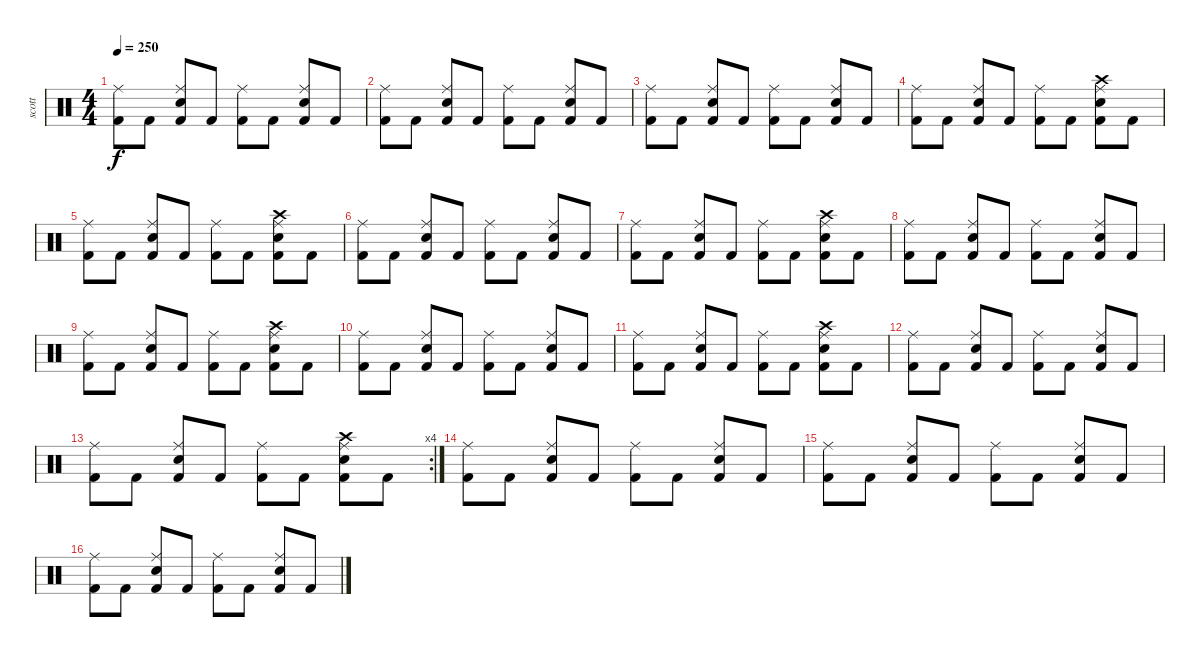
\track ("scott" "scott") {instrument percussion bank 10}
\staff {score}
\articulation defaults
\ts (4 4)
\tempo 250
\clef neutral
\ks c
("Kick (hit) 2" "Ride (middle)").8{dy f} "Kick (hit) 2".8 ("Kick (hit) 2" "Snare (hit) 2" "Ride (middle)").8 "Kick (hit) 2".8 ("Kick (hit) 2" "Ride (middle)").8 "Kick (hit) 2".8 ("Kick (hit) 2" "Snare (hit) 2" "Ride (middle)").8 "Kick (hit) 2".8 |
("Kick (hit) 2" "Ride (middle)").8 "Kick (hit) 2".8 ("Kick (hit) 2" "Snare (hit) 2" "Ride (middle)").8 "Kick (hit) 2".8 ("Kick (hit) 2" "Ride (middle)").8 "Kick (hit) 2".8 ("Kick (hit) 2" "Snare (hit) 2" "Ride (middle)").8 "Kick (hit) 2".8 |
("Kick (hit) 2" "Ride (middle)").8 "Kick (hit) 2".8 ("Kick (hit) 2" "Snare (hit) 2" "Ride (middle)").8 "Kick (hit) 2".8 ("Kick (hit) 2" "Ride (middle)").8 "Kick (hit) 2".8 ("Kick (hit) 2" "Snare (hit) 2" "Ride (middle)").8 "Kick (hit) 2".8 |
("Kick (hit) 2" "Ride (middle)").8 "Kick (hit) 2".8 ("Kick (hit) 2" "Snare (hit) 2" "Ride (middle)").8 "Kick (hit) 2".8 ("Kick (hit) 2" "Ride (middle)").8 "Kick (hit) 2".8 ("Kick (hit) 2" "Snare (hit) 2" "Ride (middle)" "Crash high (hit)").8 "Kick (hit) 2".8 |
("Kick (hit) 2" "Ride (middle)").8 "Kick (hit) 2".8 ("Kick (hit) 2" "Snare (hit) 2" "Ride (middle)").8 "Kick (hit) 2".8 ("Kick (hit) 2" "Ride (middle)").8 "Kick (hit) 2".8 ("Kick (hit) 2" "Snare (hit) 2" "Ride (middle)" "Crash high (hit)").8 "Kick (hit) 2".8 |
("Kick (hit) 2" "Ride (middle)").8 "Kick (hit) 2".8 ("Kick (hit) 2" "Snare (hit) 2" "Ride (middle)").8 "Kick (hit) 2".8 ("Kick (hit) 2" "Ride (middle)").8 "Kick (hit) 2".8 ("Kick (hit) 2" "Snare (hit) 2" "Ride (middle)").8 "Kick (hit) 2".8 |
("Kick (hit) 2" "Ride (middle)").8 "Kick (hit) 2".8 ("Kick (hit) 2" "Snare (hit) 2" "Ride (middle)").8 "Kick (hit) 2".8 ("Kick (hit) 2" "Ride (middle)").8 "Kick (hit) 2".8 ("Kick (hit) 2" "Snare (hit) 2" "Ride (middle)" "Crash high (hit)").8 "Kick (hit) 2".8 |
("Kick (hit) 2" "Ride (middle)").8 "Kick (hit) 2".8 ("Kick (hit) 2" "Snare (hit) 2" "Ride (middle)").8 "Kick (hit) 2".8 ("Kick (hit) 2" "Ride (middle)").8 "Kick (hit) 2".8 ("Kick (hit) 2" "Snare (hit) 2" "Ride (middle)").8 "Kick (hit) 2".8 |
("Kick (hit) 2" "Ride (middle)").8 "Kick (hit) 2".8 ("Kick (hit) 2" "Snare (hit) 2" "Ride (middle)").8 "Kick (hit) 2".8 ("Kick (hit) 2" "Ride (middle)").8 "Kick (hit) 2".8 ("Kick (hit) 2" "Snare (hit) 2" "Ride (middle)" "Crash high (hit)").8 "Kick (hit) 2".8 |
("Kick (hit) 2" "Ride (middle)").8 "Kick (hit) 2".8 ("Kick (hit) 2" "Snare (hit) 2" "Ride (middle)").8 "Kick (hit) 2".8 ("Kick (hit) 2" "Ride (middle)").8 "Kick (hit) 2".8 ("Kick (hit) 2" "Snare (hit) 2" "Ride (middle)").8 "Kick (hit) 2".8 |
("Kick (hit) 2" "Ride (middle)").8 "Kick (hit) 2".8 ("Kick (hit) 2" "Snare (hit) 2" "Ride (middle)").8 "Kick (hit) 2".8 ("Kick (hit) 2" "Ride (middle)").8 "Kick (hit) 2".8 ("Kick (hit) 2" "Snare (hit) 2" "Ride (middle)" "Crash high (hit)").8 "Kick (hit) 2".8 |
("Kick (hit) 2" "Ride (middle)").8 "Kick (hit) 2".8 ("Kick (hit) 2" "Snare (hit) 2" "Ride (middle)").8 "Kick (hit) 2".8 ("Kick (hit) 2" "Ride (middle)").8 "Kick (hit) 2".8 ("Kick (hit) 2" "Snare (hit) 2" "Ride (middle)").8 "Kick (hit) 2".8 |
\rc 4
("Kick (hit) 2" "Ride (middle)").8 "Kick (hit) 2".8 ("Kick (hit) 2" "Snare (hit) 2" "Ride (middle)").8 "Kick (hit) 2".8 ("Kick (hit) 2" "Ride (middle)").8 "Kick (hit) 2".8 ("Kick (hit) 2" "Snare (hit) 2" "Ride (middle)" "Crash high (hit)").8 "Kick (hit) 2".8 |
("Kick (hit) 2" "Ride (middle)").8 "Kick (hit) 2".8 ("Kick (hit) 2" "Snare (hit) 2" "Ride (middle)").8 "Kick (hit) 2".8 ("Kick (hit) 2" "Ride (middle)").8 "Kick (hit) 2".8 ("Kick (hit) 2" "Snare (hit) 2" "Ride (middle)").8 "Kick (hit) 2".8 |
("Kick (hit) 2" "Ride (middle)").8 "Kick (hit) 2".8 ("Kick (hit) 2" "Snare (hit) 2" "Ride (middle)").8 "Kick (hit) 2".8 ("Kick (hit) 2" "Ride (middle)").8 "Kick (hit) 2".8 ("Kick (hit) 2" "Snare (hit) 2" "Ride (middle)").8 "Kick (hit) 2".8 |
("Kick (hit) 2" "Ride (middle)").8 "Kick (hit) 2".8 ("Kick (hit) 2" "Snare (hit) 2" "Ride (middle)").8 "Kick (hit) 2".8 ("Kick (hit) 2" "Ride (middle)").8 "Kick (hit) 2".8 ("Kick (hit) 2" "Snare (hit) 2" "Ride (middle)").8 "Kick (hit) 2".8
